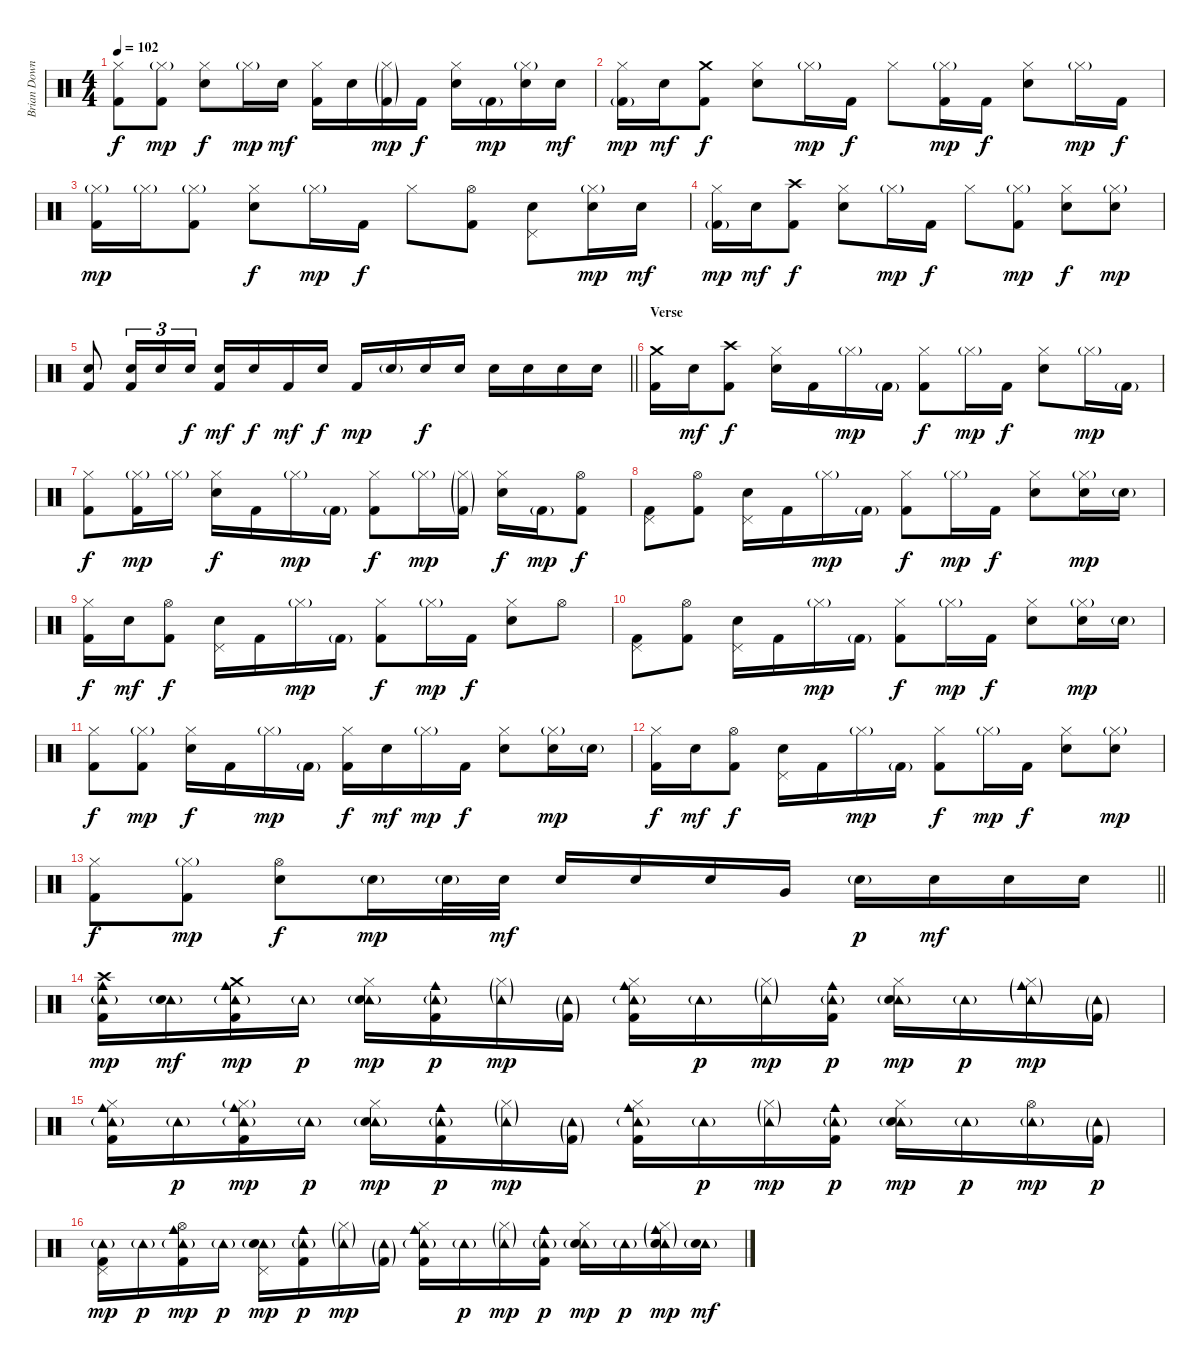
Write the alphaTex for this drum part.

\track ("Brian Downey" "Brian Down") {instrument percussion}
\staff {score}
\articulation defaults
\ts (4 4)
\tempo 102
\clef neutral
\ks c
("Hi-Hat (closed)" "Kick (hit) 2").8{dy f} ("Hi-Hat (closed)"{g} "Kick (hit) 2").8{dy mp} ("Hi-Hat (closed)" "Electric Snare (hit)").8{dy f} "Hi-Hat (closed)"{g}.16{dy mp} "Electric Snare (hit)".16{dy mf} ("Hi-Hat (closed)" "Kick (hit) 2").16 "Electric Snare (hit)".16 ("Hi-Hat (closed)"{g} "Kick (hit) 2"{g}).16{dy mp} "Kick (hit) 2".16{dy f} ("Hi-Hat (closed)" "Electric Snare (hit)").16 "Kick (hit) 2"{g}.16{dy mp} ("Hi-Hat (closed)"{g} "Electric Snare (hit)").16 "Electric Snare (hit)".16{dy mf} |
("Hi-Hat (closed)" "Kick (hit) 2"{g}).16{dy mp} "Electric Snare (hit)".16{dy mf} ("Crash medium (hit)" "Kick (hit) 2").8{dy f} ("Hi-Hat (closed)" "Electric Snare (hit)").8 "Hi-Hat (closed)"{g}.16{dy mp} "Kick (hit) 2".16{dy f} "Hi-Hat (closed)".8 ("Hi-Hat (closed)"{g} "Kick (hit) 2").16{dy mp} "Kick (hit) 2".16{dy f} ("Hi-Hat (closed)" "Electric Snare (hit)").8 "Hi-Hat (closed)"{g}.16{dy mp} "Kick (hit) 2".16{dy f} |
("Hi-Hat (closed)"{g} "Kick (hit) 2").16{dy mp} "Hi-Hat (closed)"{g}.16 ("Hi-Hat (closed)"{g} "Kick (hit) 2").8 ("Hi-Hat (closed)" "Electric Snare (hit)").8{dy f} "Hi-Hat (closed)"{g}.16{dy mp} "Kick (hit) 2".16{dy f} "Hi-Hat (closed)".8 ("Hi-Hat (open)" "Kick (hit) 2").8 ("Pedal Hi-Hat (hit)" "Electric Snare (hit)").8 ("Hi-Hat (closed)"{g} "Electric Snare (hit)").16{dy mp} "Electric Snare (hit)".16{dy mf} |
("Hi-Hat (closed)" "Kick (hit) 2"{g}).16{dy mp} "Electric Snare (hit)".16{dy mf} ("Crash high (hit)" "Kick (hit) 2").8{dy f} ("Hi-Hat (closed)" "Electric Snare (hit)").8 "Hi-Hat (closed)"{g}.16{dy mp} "Kick (hit) 2".16{dy f} "Hi-Hat (closed)".8 ("Hi-Hat (closed)"{g} "Kick (hit) 2").8{dy mp} ("Hi-Hat (closed)" "Electric Snare (hit)").8{dy f} ("Hi-Hat (closed)"{g} "Electric Snare (hit)").8{dy mp} |
\barLineRight lightlight
("Electric Snare (hit)" "Kick (hit) 2").8 ("Electric Snare (hit)" "Kick (hit) 2").16{tu (3 2)} "Electric Snare (hit)".16{tu (3 2)} "Electric Snare (hit)".16{tu (3 2) dy f} ("Electric Snare (hit)" "Kick (hit) 2").16{dy mf} "Electric Snare (hit)".16{dy f} "Kick (hit) 2".16{dy mf} "Electric Snare (hit)".16{dy f} "Kick (hit) 2".16{dy mp} "Electric Snare (hit)"{g}.16 "Electric Snare (hit)".16{dy f} "Electric Snare (hit)".16 "Electric Snare (hit)".16 "Electric Snare (hit)".16 "Electric Snare (hit)".16 "Electric Snare (hit)".16 |
\section ("" "Verse")
("Crash medium (hit)" "Kick (hit) 2").16 "Electric Snare (hit)".16{dy mf} ("Crash high (hit)" "Kick (hit) 2").8{dy f} ("Hi-Hat (closed)" "Electric Snare (hit)").16 "Kick (hit) 2".16 "Hi-Hat (closed)"{g}.16{dy mp} "Kick (hit) 2"{g}.16 ("Hi-Hat (closed)" "Kick (hit) 2").8{dy f} "Hi-Hat (closed)"{g}.16{dy mp} "Kick (hit) 2".16{dy f} ("Hi-Hat (closed)" "Electric Snare (hit)").8 "Hi-Hat (closed)"{g}.16{dy mp} "Kick (hit) 2"{g}.16 |
("Hi-Hat (closed)" "Kick (hit) 2").8{dy f} ("Hi-Hat (closed)"{g} "Kick (hit) 2").16{dy mp} "Hi-Hat (closed)"{g}.16 ("Hi-Hat (closed)" "Electric Snare (hit)").16{dy f} "Kick (hit) 2".16 "Hi-Hat (closed)"{g}.16{dy mp} "Kick (hit) 2"{g}.16 ("Hi-Hat (closed)" "Kick (hit) 2").8{dy f} "Hi-Hat (closed)"{g}.16{dy mp} ("Hi-Hat (closed)"{g} "Kick (hit) 2"{g}).16 ("Hi-Hat (closed)" "Electric Snare (hit)").16{dy f} "Kick (hit) 2"{g}.16{dy mp} ("Hi-Hat (open)" "Kick (hit) 2").8{dy f} |
("Pedal Hi-Hat (hit)" "Kick (hit) 2").8 ("Hi-Hat (open)" "Kick (hit) 2").8 ("Pedal Hi-Hat (hit)" "Electric Snare (hit)").16 "Kick (hit) 2".16 "Hi-Hat (closed)"{g}.16{dy mp} "Kick (hit) 2"{g}.16 ("Hi-Hat (closed)" "Kick (hit) 2").8{dy f} "Hi-Hat (closed)"{g}.16{dy mp} "Kick (hit) 2".16{dy f} ("Hi-Hat (closed)" "Electric Snare (hit)").8 ("Hi-Hat (closed)"{g} "Electric Snare (hit)").16{dy mp} "Electric Snare (hit)"{g}.16 |
("Hi-Hat (closed)" "Kick (hit) 2").16{dy f} "Electric Snare (hit)".16{dy mf} ("Hi-Hat (open)" "Kick (hit) 2").8{dy f} ("Pedal Hi-Hat (hit)" "Electric Snare (hit)").16 "Kick (hit) 2".16 "Hi-Hat (closed)"{g}.16{dy mp} "Kick (hit) 2"{g}.16 ("Hi-Hat (closed)" "Kick (hit) 2").8{dy f} "Hi-Hat (closed)"{g}.16{dy mp} "Kick (hit) 2".16{dy f} ("Hi-Hat (closed)" "Electric Snare (hit)").8 "Hi-Hat (open)".8 |
("Pedal Hi-Hat (hit)" "Kick (hit) 2").8 ("Hi-Hat (open)" "Kick (hit) 2").8 ("Pedal Hi-Hat (hit)" "Electric Snare (hit)").16 "Kick (hit) 2".16 "Hi-Hat (closed)"{g}.16{dy mp} "Kick (hit) 2"{g}.16 ("Hi-Hat (closed)" "Kick (hit) 2").8{dy f} "Hi-Hat (closed)"{g}.16{dy mp} "Kick (hit) 2".16{dy f} ("Hi-Hat (closed)" "Electric Snare (hit)").8 ("Hi-Hat (closed)"{g} "Electric Snare (hit)").16{dy mp} "Electric Snare (hit)"{g}.16 |
("Hi-Hat (closed)" "Kick (hit) 2").8{dy f} ("Hi-Hat (closed)"{g} "Kick (hit) 2").8{dy mp} ("Hi-Hat (closed)" "Electric Snare (hit)").16{dy f} "Kick (hit) 2".16 "Hi-Hat (closed)"{g}.16{dy mp} "Kick (hit) 2"{g}.16 ("Hi-Hat (closed)" "Kick (hit) 2").16{dy f} "Electric Snare (hit)".16{dy mf} "Hi-Hat (closed)"{g}.16{dy mp} "Kick (hit) 2".16{dy f} ("Hi-Hat (closed)" "Electric Snare (hit)").8 ("Hi-Hat (closed)"{g} "Electric Snare (hit)").16{dy mp} "Electric Snare (hit)"{g}.16 |
("Hi-Hat (closed)" "Kick (hit) 2").16{dy f} "Electric Snare (hit)".16{dy mf} ("Hi-Hat (open)" "Kick (hit) 2").8{dy f} ("Pedal Hi-Hat (hit)" "Electric Snare (hit)").16 "Kick (hit) 2".16 "Hi-Hat (closed)"{g}.16{dy mp} "Kick (hit) 2"{g}.16 ("Hi-Hat (closed)" "Kick (hit) 2").8{dy f} "Hi-Hat (closed)"{g}.16{dy mp} "Kick (hit) 2".16{dy f} ("Hi-Hat (closed)" "Electric Snare (hit)").8 ("Hi-Hat (closed)"{g} "Electric Snare (hit)").8{dy mp} |
\barLineRight lightlight
("Hi-Hat (closed)" "Kick (hit) 2").8{dy f} ("Hi-Hat (closed)"{g} "Kick (hit) 2").8{dy mp} ("Hi-Hat (open)" "Electric Snare (hit)").8{dy f} "Electric Snare (hit)"{g}.16{dy mp} "Electric Snare (hit)"{g}.32 "Electric Snare (hit)".32{dy mf} "Electric Snare (hit)".16 "Electric Snare (hit)".16 "Electric Snare (hit)".16 "Very Low Tom (hit)".16 "Electric Snare (hit)"{g}.16{dy p} "Electric Snare (hit)".16{dy mf} "Electric Snare (hit)".16 "Electric Snare (hit)".16 |
\section ("" "")
("Crash high (hit)" "Tambourine (hit)"{g} "Cowbell medium (hit)" "Kick (hit) 2").16{dy mp} ("Tambourine (hit)"{g} "Electric Snare (hit)").16{dy mf} ("Crash medium (hit)" "Tambourine (hit)"{g} "Cowbell medium (hit)" "Kick (hit) 2").16{dy mp} "Tambourine (hit)"{g}.16{dy p} ("Hi-Hat (closed)" "Tambourine (hit)"{g} "Electric Snare (hit)").16{dy mp} ("Tambourine (hit)"{g} "Cowbell medium (hit)" "Kick (hit) 2").16{dy p} ("Hi-Hat (closed)"{g} "Tambourine (hit)"{g}).16{dy mp} ("Tambourine (hit)"{g} "Kick (hit) 2"{g}).16 ("Hi-Hat (closed)" "Tambourine (hit)"{g} "Cowbell medium (hit)" "Kick (hit) 2").16 "Tambourine (hit)"{g}.16{dy p} ("Hi-Hat (closed)"{g} "Tambourine (hit)"{g}).16{dy mp} ("Tambourine (hit)"{g} "Cowbell medium (hit)" "Kick (hit) 2").16{dy p} ("Hi-Hat (closed)" "Tambourine (hit)"{g} "Electric Snare (hit)").16{dy mp} "Tambourine (hit)"{g}.16{dy p} ("Hi-Hat (closed)"{g} "Tambourine (hit)"{g} "Cowbell medium (hit)"{g}).16{dy mp} ("Tambourine (hit)"{g} "Kick (hit) 2"{g}).16 |
("Hi-Hat (closed)" "Tambourine (hit)"{g} "Cowbell medium (hit)" "Kick (hit) 2").16 "Tambourine (hit)"{g}.16{dy p} ("Hi-Hat (closed)"{g} "Tambourine (hit)"{g} "Cowbell medium (hit)" "Kick (hit) 2").16{dy mp} "Tambourine (hit)"{g}.16{dy p} ("Hi-Hat (closed)" "Tambourine (hit)"{g} "Electric Snare (hit)").16{dy mp} ("Tambourine (hit)"{g} "Cowbell medium (hit)" "Kick (hit) 2").16{dy p} ("Hi-Hat (closed)"{g} "Tambourine (hit)"{g}).16{dy mp} ("Tambourine (hit)"{g} "Kick (hit) 2"{g}).16 ("Hi-Hat (closed)" "Tambourine (hit)"{g} "Cowbell medium (hit)" "Kick (hit) 2").16 "Tambourine (hit)"{g}.16{dy p} ("Hi-Hat (closed)"{g} "Tambourine (hit)"{g}).16{dy mp} ("Tambourine (hit)"{g} "Cowbell medium (hit)" "Kick (hit) 2").16{dy p} ("Hi-Hat (closed)" "Tambourine (hit)"{g} "Electric Snare (hit)").16{dy mp} "Tambourine (hit)"{g}.16{dy p} ("Hi-Hat (open)" "Tambourine (hit)"{g}).16{dy mp} ("Tambourine (hit)"{g} "Kick (hit) 2"{g}).16{dy p} |
("Pedal Hi-Hat (hit)" "Tambourine (hit)"{g} "Kick (hit) 2").16{dy mp} "Tambourine (hit)"{g}.16{dy p} ("Hi-Hat (open)" "Tambourine (hit)"{g} "Cowbell medium (hit)" "Kick (hit) 2").16{dy mp} "Tambourine (hit)"{g}.16{dy p} ("Pedal Hi-Hat (hit)" "Tambourine (hit)"{g} "Electric Snare (hit)").16{dy mp} ("Tambourine (hit)"{g} "Cowbell medium (hit)" "Kick (hit) 2").16{dy p} ("Hi-Hat (closed)"{g} "Tambourine (hit)"{g}).16{dy mp} ("Tambourine (hit)"{g} "Kick (hit) 2"{g}).16 ("Hi-Hat (closed)" "Tambourine (hit)"{g} "Cowbell medium (hit)" "Kick (hit) 2").16 "Tambourine (hit)"{g}.16{dy p} ("Hi-Hat (closed)"{g} "Tambourine (hit)"{g}).16{dy mp} ("Tambourine (hit)"{g} "Cowbell medium (hit)" "Kick (hit) 2").16{dy p} ("Hi-Hat (closed)" "Tambourine (hit)"{g} "Electric Snare (hit)").16{dy mp} "Tambourine (hit)"{g}.16{dy p} ("Hi-Hat (closed)"{g} "Tambourine (hit)"{g} "Cowbell medium (hit)"{g} "Electric Snare (hit)").16{dy mp} ("Tambourine (hit)"{g} "Electric Snare (hit)").16{dy mf}
